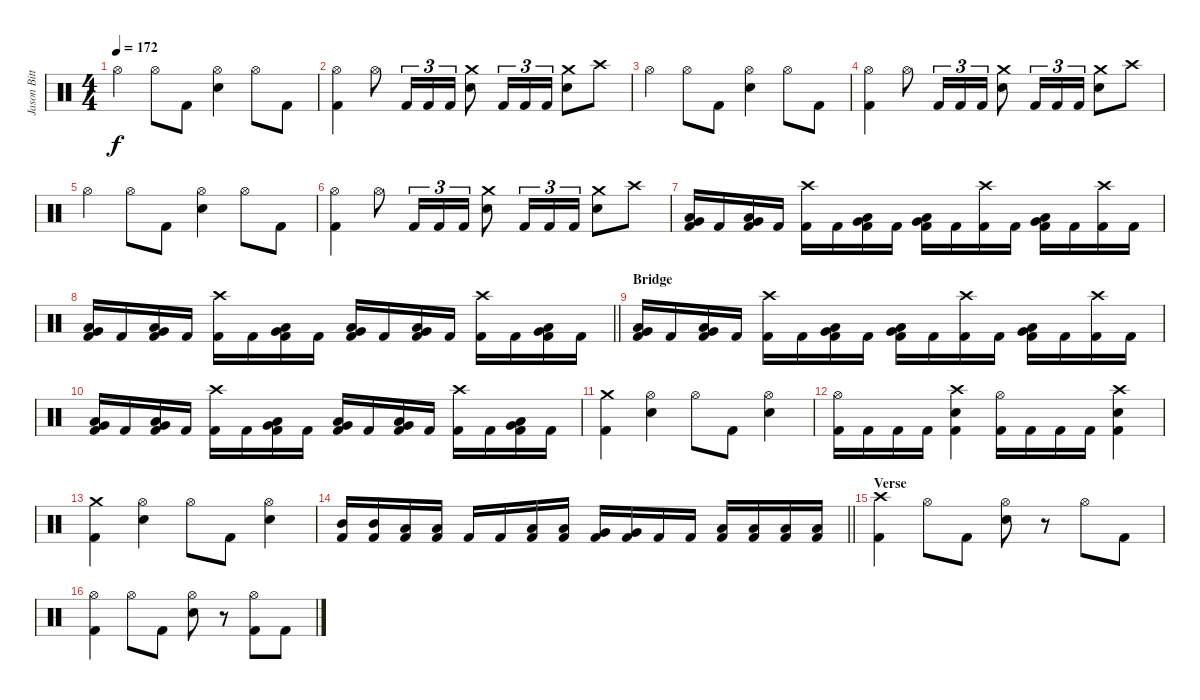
\track ("Jason Bittner" "Jason Bitt") {instrument percussion}
\staff {score}
\articulation defaults
\ts (4 4)
\tempo 172
\clef neutral
\ks c "Hi-Hat (open)".4{dy f} "Hi-Hat (open)".8 "Kick (hit) 2".8
("Hi-Hat (open)" "Electric Snare (hit)").4 "Hi-Hat (open)".8 "Kick (hit) 2".8 |
("Hi-Hat (open)" "Kick (hit) 2").4 "Hi-Hat (open)".8 "Kick (hit) 2".16{tu (3 2)} "Kick (hit) 2".16{tu (3 2)} "Kick (hit) 2".16{tu (3 2)} ("Crash medium (hit)" "Electric Snare (hit)").8 "Kick (hit) 2".16{tu (3 2)} "Kick (hit) 2".16{tu (3 2)} "Kick (hit) 2".16{tu (3 2)} ("Crash medium (hit)" "Electric Snare (hit)").8 "Crash high (hit)".8 |
"Hi-Hat (open)".4 "Hi-Hat (open)".8 "Kick (hit) 2".8 ("Hi-Hat (open)" "Electric Snare (hit)").4 "Hi-Hat (open)".8 "Kick (hit) 2".8 |
("Hi-Hat (open)" "Kick (hit) 2").4 "Hi-Hat (open)".8 "Kick (hit) 2".16{tu (3 2)} "Kick (hit) 2".16{tu (3 2)} "Kick (hit) 2".16{tu (3 2)} ("Crash medium (hit)" "Electric Snare (hit)").8 "Kick (hit) 2".16{tu (3 2)} "Kick (hit) 2".16{tu (3 2)} "Kick (hit) 2".16{tu (3 2)} ("Crash medium (hit)" "Electric Snare (hit)").8 "Crash high (hit)".8 |
"Hi-Hat (open)".4 "Hi-Hat (open)".8 "Kick (hit) 2".8 ("Hi-Hat (open)" "Electric Snare (hit)").4 "Hi-Hat (open)".8 "Kick (hit) 2".8 |
("Hi-Hat (open)" "Kick (hit) 2").4 "Hi-Hat (open)".8 "Kick (hit) 2".16{tu (3 2)} "Kick (hit) 2".16{tu (3 2)} "Kick (hit) 2".16{tu (3 2)} ("Crash medium (hit)" "Electric Snare (hit)").8 "Kick (hit) 2".16{tu (3 2)} "Kick (hit) 2".16{tu (3 2)} "Kick (hit) 2".16{tu (3 2)} ("Crash medium (hit)" "Electric Snare (hit)").8 "Crash high (hit)".8 |
("Very Low Tom (hit)" "Low Floor Tom (hit)" "Kick (hit) 2").16 "Kick (hit) 2".16 ("Very Low Tom (hit)" "Low Floor Tom (hit)" "Kick (hit) 2").16 "Kick (hit) 2".16 ("Crash high (hit)" "Kick (hit) 2").16 "Kick (hit) 2".16 ("Very Low Tom (hit)" "Low Floor Tom (hit)" "Kick (hit) 2").16 "Kick (hit) 2".16 ("Very Low Tom (hit)" "Low Floor Tom (hit)" "Kick (hit) 2").16 "Kick (hit) 2".16 ("Crash high (hit)" "Kick (hit) 2").16 "Kick (hit) 2".16 ("Very Low Tom (hit)" "Low Floor Tom (hit)" "Kick (hit) 2").16 "Kick (hit) 2".16 ("Crash high (hit)" "Kick (hit) 2").16 "Kick (hit) 2".16 |
\barLineRight lightlight
("Very Low Tom (hit)" "Low Floor Tom (hit)" "Kick (hit) 2").16 "Kick (hit) 2".16 ("Very Low Tom (hit)" "Low Floor Tom (hit)" "Kick (hit) 2").16 "Kick (hit) 2".16 ("Crash high (hit)" "Kick (hit) 2").16 "Kick (hit) 2".16 ("Very Low Tom (hit)" "Low Floor Tom (hit)" "Kick (hit) 2").16 "Kick (hit) 2".16 ("Very Low Tom (hit)" "Low Floor Tom (hit)" "Kick (hit) 2").16 "Kick (hit) 2".16 ("Very Low Tom (hit)" "Low Floor Tom (hit)" "Kick (hit) 2").16 "Kick (hit) 2".16 ("Crash high (hit)" "Kick (hit) 2").16 "Kick (hit) 2".16 ("Very Low Tom (hit)" "Low Floor Tom (hit)" "Kick (hit) 2").16 "Kick (hit) 2".16 |
\section ("" "Bridge")
("Very Low Tom (hit)" "Low Floor Tom (hit)" "Kick (hit) 2").16 "Kick (hit) 2".16 ("Very Low Tom (hit)" "Low Floor Tom (hit)" "Kick (hit) 2").16 "Kick (hit) 2".16 ("Crash high (hit)" "Kick (hit) 2").16 "Kick (hit) 2".16 ("Very Low Tom (hit)" "Low Floor Tom (hit)" "Kick (hit) 2").16 "Kick (hit) 2".16 ("Very Low Tom (hit)" "Low Floor Tom (hit)" "Kick (hit) 2").16 "Kick (hit) 2".16 ("Crash high (hit)" "Kick (hit) 2").16 "Kick (hit) 2".16 ("Very Low Tom (hit)" "Low Floor Tom (hit)" "Kick (hit) 2").16 "Kick (hit) 2".16 ("Crash high (hit)" "Kick (hit) 2").16 "Kick (hit) 2".16 |
("Very Low Tom (hit)" "Low Floor Tom (hit)" "Kick (hit) 2").16 "Kick (hit) 2".16 ("Very Low Tom (hit)" "Low Floor Tom (hit)" "Kick (hit) 2").16 "Kick (hit) 2".16 ("Crash high (hit)" "Kick (hit) 2").16 "Kick (hit) 2".16 ("Very Low Tom (hit)" "Low Floor Tom (hit)" "Kick (hit) 2").16 "Kick (hit) 2".16 ("Very Low Tom (hit)" "Low Floor Tom (hit)" "Kick (hit) 2").16 "Kick (hit) 2".16 ("Very Low Tom (hit)" "Low Floor Tom (hit)" "Kick (hit) 2").16 "Kick (hit) 2".16 ("Crash high (hit)" "Kick (hit) 2").16 "Kick (hit) 2".16 ("Very Low Tom (hit)" "Low Floor Tom (hit)" "Kick (hit) 2").16 "Kick (hit) 2".16 |
("Crash medium (hit)" "Kick (hit) 2").4 ("Hi-Hat (open)" "Electric Snare (hit)").4 "Hi-Hat (open)".8 "Kick (hit) 2".8 ("Hi-Hat (open)" "Electric Snare (hit)").4 |
("Hi-Hat (open)" "Kick (hit) 2").16 "Kick (hit) 2".16 "Kick (hit) 2".16 "Kick (hit) 2".16 ("Crash high (hit)" "Electric Snare (hit)" "Kick (hit) 2").4 ("Hi-Hat (open)" "Kick (hit) 2").16 "Kick (hit) 2".16 "Kick (hit) 2".16 "Kick (hit) 2".16 ("Crash high (hit)" "Electric Snare (hit)" "Kick (hit) 2").4 |
("Crash medium (hit)" "Kick (hit) 2").4 ("Hi-Hat (open)" "Electric Snare (hit)").4 "Hi-Hat (open)".8 "Kick (hit) 2".8 ("Hi-Hat (open)" "Electric Snare (hit)").4 |
\barLineRight lightlight
("Mid Tom (hit)" "Kick (hit) 2").16 ("Mid Tom (hit)" "Kick (hit) 2").16 ("Low Tom (hit)" "Kick (hit) 2").16 ("Low Tom (hit)" "Kick (hit) 2").16 "Kick (hit) 2".16 "Kick (hit) 2".16 ("Low Tom (hit)" "Kick (hit) 2").16 ("Low Tom (hit)" "Kick (hit) 2").16 ("Very Low Tom (hit)" "Kick (hit) 2").16 ("Very Low Tom (hit)" "Kick (hit) 2").16 "Kick (hit) 2".16 "Kick (hit) 2".16 ("Low Tom (hit)" "Kick (hit) 2").16 ("Low Tom (hit)" "Kick (hit) 2").16 ("Low Floor Tom (hit)" "Kick (hit) 2").16 ("Low Floor Tom (hit)" "Kick (hit) 2").16 |
\section ("" "Verse")
("Crash high (hit)" "Kick (hit) 2").4 "Hi-Hat (open)".8 "Kick (hit) 2".8 ("Hi-Hat (open)" "Electric Snare (hit)").8 r.8 "Hi-Hat (open)".8 "Kick (hit) 2".8 |
("Hi-Hat (open)" "Kick (hit) 2").4 "Hi-Hat (open)".8 "Kick (hit) 2".8 ("Hi-Hat (open)" "Electric Snare (hit)").8 r.8 ("Hi-Hat (open)" "Kick (hit) 2").8 "Kick (hit) 2".8
